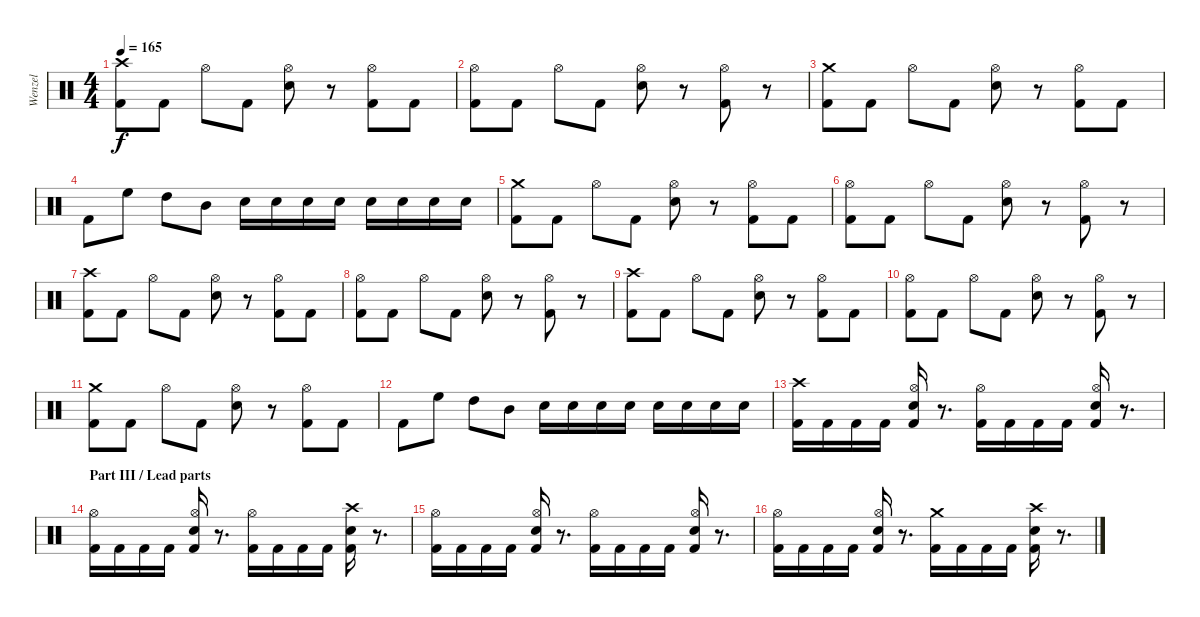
\track ("Wenzel" "Wenzel") {instrument percussion}
\staff {score}
\articulation defaults
\ts (4 4)
\tempo 165
\clef neutral
\ks c
("Crash high (hit)" "Kick (hit) 2").8{dy f} "Kick (hit) 2".8 "Hi-Hat (open)".8 "Kick (hit) 2".8 ("Hi-Hat (open)" "Snare (hit) 2").8 r.8 ("Hi-Hat (open)" "Kick (hit) 2").8 "Kick (hit) 2".8 |
("Hi-Hat (open)" "Kick (hit) 2").8 "Kick (hit) 2".8 "Hi-Hat (open)".8 "Kick (hit) 2".8 ("Hi-Hat (open)" "Snare (hit) 2").8 r.8 ("Hi-Hat (open)" "Kick (hit) 2").8 r.8 |
("Crash medium (hit)" "Kick (hit) 2").8 "Kick (hit) 2".8 "Hi-Hat (open)".8 "Kick (hit) 2".8 ("Hi-Hat (open)" "Snare (hit) 2").8 r.8 ("Hi-Hat (open)" "Kick (hit) 2").8 "Kick (hit) 2".8 |
"Kick (hit) 2".8 "High Floor Tom (hit)".8 "High Tom (hit)".8 "Mid Tom (hit)".8 "Snare (hit) 2".16 "Snare (hit) 2".16 "Snare (hit) 2".16 "Snare (hit) 2".16 "Snare (hit) 2".16 "Snare (hit) 2".16 "Snare (hit) 2".16 "Snare (hit) 2".16 |
("Crash medium (hit)" "Kick (hit) 2").8 "Kick (hit) 2".8 "Hi-Hat (open)".8 "Kick (hit) 2".8 ("Hi-Hat (open)" "Snare (hit) 2").8 r.8 ("Hi-Hat (open)" "Kick (hit) 2").8 "Kick (hit) 2".8 |
("Hi-Hat (open)" "Kick (hit) 2").8 "Kick (hit) 2".8 "Hi-Hat (open)".8 "Kick (hit) 2".8 ("Hi-Hat (open)" "Snare (hit) 2").8 r.8 ("Hi-Hat (open)" "Kick (hit) 2").8 r.8 |
("Crash high (hit)" "Kick (hit) 2").8 "Kick (hit) 2".8 "Hi-Hat (open)".8 "Kick (hit) 2".8 ("Hi-Hat (open)" "Snare (hit) 2").8 r.8 ("Hi-Hat (open)" "Kick (hit) 2").8 "Kick (hit) 2".8 |
("Hi-Hat (open)" "Kick (hit) 2").8 "Kick (hit) 2".8 "Hi-Hat (open)".8 "Kick (hit) 2".8 ("Hi-Hat (open)" "Snare (hit) 2").8 r.8 ("Hi-Hat (open)" "Kick (hit) 2").8 r.8 |
("Crash high (hit)" "Kick (hit) 2").8 "Kick (hit) 2".8 "Hi-Hat (open)".8 "Kick (hit) 2".8 ("Hi-Hat (open)" "Snare (hit) 2").8 r.8 ("Hi-Hat (open)" "Kick (hit) 2").8 "Kick (hit) 2".8 |
("Hi-Hat (open)" "Kick (hit) 2").8 "Kick (hit) 2".8 "Hi-Hat (open)".8 "Kick (hit) 2".8 ("Hi-Hat (open)" "Snare (hit) 2").8 r.8 ("Hi-Hat (open)" "Kick (hit) 2").8 r.8 |
("Crash medium (hit)" "Kick (hit) 2").8 "Kick (hit) 2".8 "Hi-Hat (open)".8 "Kick (hit) 2".8 ("Hi-Hat (open)" "Snare (hit) 2").8 r.8 ("Hi-Hat (open)" "Kick (hit) 2").8 "Kick (hit) 2".8 |
"Kick (hit) 2".8 "High Floor Tom (hit)".8 "High Tom (hit)".8 "Mid Tom (hit)".8 "Snare (hit) 2".16 "Snare (hit) 2".16 "Snare (hit) 2".16 "Snare (hit) 2".16 "Snare (hit) 2".16 "Snare (hit) 2".16 "Snare (hit) 2".16 "Snare (hit) 2".16 |
("Crash high (hit)" "Kick (hit) 2").16 "Kick (hit) 2".16 "Kick (hit) 2".16 "Kick (hit) 2".16 ("Hi-Hat (open)" "Snare (hit) 2" "Kick (hit) 2").16 r.8{d} ("Hi-Hat (open)" "Kick (hit) 2").16 "Kick (hit) 2".16 "Kick (hit) 2".16 "Kick (hit) 2".16 ("Hi-Hat (open)" "Snare (hit) 2" "Kick (hit) 2").16 r.8{d} |
\section ("" "Part III / Lead parts")
("Hi-Hat (open)" "Kick (hit) 2").16 "Kick (hit) 2".16 "Kick (hit) 2".16 "Kick (hit) 2".16 ("Hi-Hat (open)" "Snare (hit) 2" "Kick (hit) 2").16 r.8{d} ("Hi-Hat (open)" "Kick (hit) 2").16 "Kick (hit) 2".16 "Kick (hit) 2".16 "Kick (hit) 2".16 ("Crash high (hit)" "Snare (hit) 2" "Kick (hit) 2").16 r.8{d} |
("Hi-Hat (open)" "Kick (hit) 2").16 "Kick (hit) 2".16 "Kick (hit) 2".16 "Kick (hit) 2".16 ("Hi-Hat (open)" "Snare (hit) 2" "Kick (hit) 2").16 r.8{d} ("Hi-Hat (open)" "Kick (hit) 2").16 "Kick (hit) 2".16 "Kick (hit) 2".16 "Kick (hit) 2".16 ("Hi-Hat (open)" "Snare (hit) 2" "Kick (hit) 2").16 r.8{d} |
("Hi-Hat (open)" "Kick (hit) 2").16 "Kick (hit) 2".16 "Kick (hit) 2".16 "Kick (hit) 2".16 ("Hi-Hat (open)" "Snare (hit) 2" "Kick (hit) 2").16 r.8{d} ("Crash medium (hit)" "Kick (hit) 2").16 "Kick (hit) 2".16 "Kick (hit) 2".16 "Kick (hit) 2".16 ("Crash high (hit)" "Snare (hit) 2" "Kick (hit) 2").16 r.8{d}
